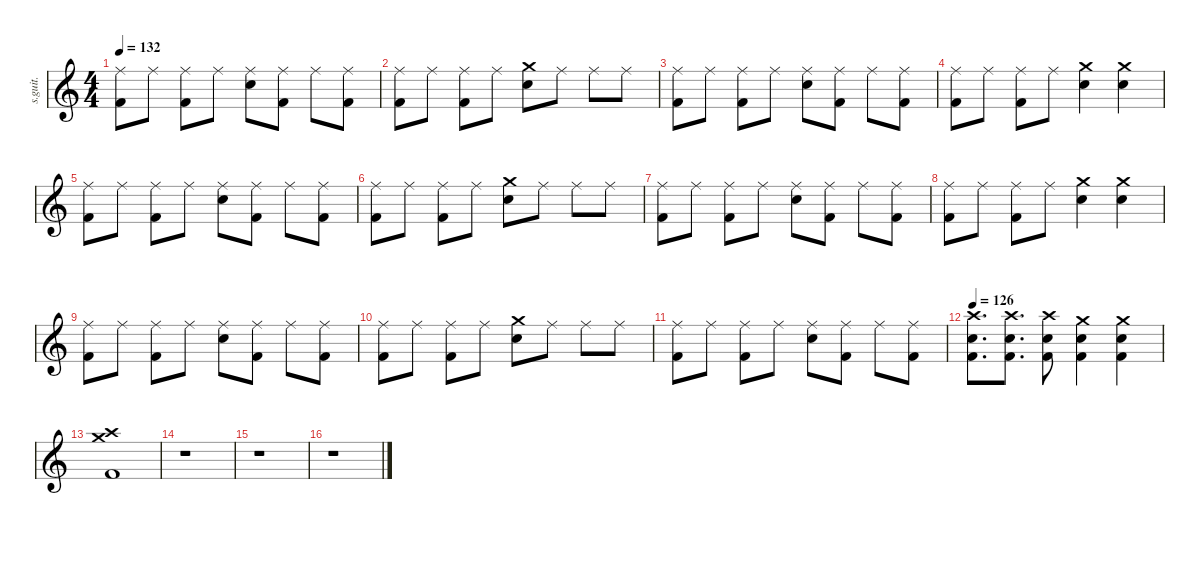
\defaultSystemsLayout 4
\hideDynamics
\bracketExtendMode nobrackets
\track ("John Dolmayan" "s.guit.") {instrument percussion}
\staff {score}
\articulation defaults
\ts (4 4)
\tempo 132
\clef g2
\ks c
("Ride (middle)" "Kick (hit) 2").8{lyrics (0 "") lyrics (1 "") lyrics (2 "") lyrics (3 "") lyrics (4 "") dy f} "Ride (middle)".8{lyrics (0 "") lyrics (1 "") lyrics (2 "") lyrics (3 "") lyrics (4 "")} ("Ride (middle)" "Kick (hit) 2").8{lyrics (0 "") lyrics (1 "") lyrics (2 "") lyrics (3 "") lyrics (4 "")} "Ride (middle)".8{lyrics (0 "") lyrics (1 "") lyrics (2 "") lyrics (3 "") lyrics (4 "")} ("Ride (middle)" "Snare (hit) 2").8{lyrics (0 "") lyrics (1 "") lyrics (2 "") lyrics (3 "") lyrics (4 "")} ("Ride (middle)" "Kick (hit) 2").8{lyrics (0 "") lyrics (1 "") lyrics (2 "") lyrics (3 "") lyrics (4 "")} "Ride (middle)".8{lyrics (0 "") lyrics (1 "") lyrics (2 "") lyrics (3 "") lyrics (4 "")} ("Ride (middle)" "Kick (hit) 2").8{lyrics (0 "") lyrics (1 "") lyrics (2 "") lyrics (3 "") lyrics (4 "")} |
("Ride (middle)" "Kick (hit) 2").8{lyrics (0 "") lyrics (1 "") lyrics (2 "") lyrics (3 "") lyrics (4 "")} "Ride (middle)".8{lyrics (0 "") lyrics (1 "") lyrics (2 "") lyrics (3 "") lyrics (4 "")} ("Ride (middle)" "Kick (hit) 2").8{lyrics (0 "") lyrics (1 "") lyrics (2 "") lyrics (3 "") lyrics (4 "")} "Ride (middle)".8{lyrics (0 "") lyrics (1 "") lyrics (2 "") lyrics (3 "") lyrics (4 "")} ("Crash medium (hit)" "Snare (hit) 2").8{lyrics (0 "") lyrics (1 "") lyrics (2 "") lyrics (3 "") lyrics (4 "")} "Ride (middle)".8{lyrics (0 "") lyrics (1 "") lyrics (2 "") lyrics (3 "") lyrics (4 "")} "Ride (middle)".8{lyrics (0 "") lyrics (1 "") lyrics (2 "") lyrics (3 "") lyrics (4 "")} "Ride (middle)".8{lyrics (0 "") lyrics (1 "") lyrics (2 "") lyrics (3 "") lyrics (4 "")} |
("Ride (middle)" "Kick (hit) 2").8{lyrics (0 "") lyrics (1 "") lyrics (2 "") lyrics (3 "") lyrics (4 "")} "Ride (middle)".8{lyrics (0 "") lyrics (1 "") lyrics (2 "") lyrics (3 "") lyrics (4 "")} ("Ride (middle)" "Kick (hit) 2").8{lyrics (0 "") lyrics (1 "") lyrics (2 "") lyrics (3 "") lyrics (4 "")} "Ride (middle)".8{lyrics (0 "") lyrics (1 "") lyrics (2 "") lyrics (3 "") lyrics (4 "")} ("Ride (middle)" "Snare (hit) 2").8{lyrics (0 "") lyrics (1 "") lyrics (2 "") lyrics (3 "") lyrics (4 "")} ("Ride (middle)" "Kick (hit) 2").8{lyrics (0 "") lyrics (1 "") lyrics (2 "") lyrics (3 "") lyrics (4 "")} "Ride (middle)".8{lyrics (0 "") lyrics (1 "") lyrics (2 "") lyrics (3 "") lyrics (4 "")} ("Ride (middle)" "Kick (hit) 2").8{lyrics (0 "") lyrics (1 "") lyrics (2 "") lyrics (3 "") lyrics (4 "")} |
("Ride (middle)" "Kick (hit) 2").8{lyrics (0 "") lyrics (1 "") lyrics (2 "") lyrics (3 "") lyrics (4 "")} "Ride (middle)".8{lyrics (0 "") lyrics (1 "") lyrics (2 "") lyrics (3 "") lyrics (4 "")} ("Ride (middle)" "Kick (hit) 2").8{lyrics (0 "") lyrics (1 "") lyrics (2 "") lyrics (3 "") lyrics (4 "")} "Ride (middle)".8{lyrics (0 "") lyrics (1 "") lyrics (2 "") lyrics (3 "") lyrics (4 "")} ("Crash medium (hit)" "Snare (hit) 2").4{lyrics (0 "") lyrics (1 "") lyrics (2 "") lyrics (3 "") lyrics (4 "")} ("Crash medium (hit)" "Snare (hit) 2").4{lyrics (0 "") lyrics (1 "") lyrics (2 "") lyrics (3 "") lyrics (4 "")} |
("Ride (middle)" "Kick (hit) 2").8{lyrics (0 "") lyrics (1 "") lyrics (2 "") lyrics (3 "") lyrics (4 "")} "Ride (middle)".8{lyrics (0 "") lyrics (1 "") lyrics (2 "") lyrics (3 "") lyrics (4 "")} ("Ride (middle)" "Kick (hit) 2").8{lyrics (0 "") lyrics (1 "") lyrics (2 "") lyrics (3 "") lyrics (4 "")} "Ride (middle)".8{lyrics (0 "") lyrics (1 "") lyrics (2 "") lyrics (3 "") lyrics (4 "") dy mf} ("Ride (middle)" "Snare (hit) 2").8{lyrics (0 "") lyrics (1 "") lyrics (2 "") lyrics (3 "") lyrics (4 "") dy f} ("Ride (middle)" "Kick (hit) 2").8{lyrics (0 "") lyrics (1 "") lyrics (2 "") lyrics (3 "") lyrics (4 "")} "Ride (middle)".8{lyrics (0 "") lyrics (1 "") lyrics (2 "") lyrics (3 "") lyrics (4 "")} ("Ride (middle)" "Kick (hit) 2").8{lyrics (0 "") lyrics (1 "") lyrics (2 "") lyrics (3 "") lyrics (4 "")} |
("Ride (middle)" "Kick (hit) 2").8{lyrics (0 "") lyrics (1 "") lyrics (2 "") lyrics (3 "") lyrics (4 "")} "Ride (middle)".8{lyrics (0 "") lyrics (1 "") lyrics (2 "") lyrics (3 "") lyrics (4 "")} ("Ride (middle)" "Kick (hit) 2").8{lyrics (0 "") lyrics (1 "") lyrics (2 "") lyrics (3 "") lyrics (4 "")} "Ride (middle)".8{lyrics (0 "") lyrics (1 "") lyrics (2 "") lyrics (3 "") lyrics (4 "")} ("Crash medium (hit)" "Snare (hit) 2").8{lyrics (0 "") lyrics (1 "") lyrics (2 "") lyrics (3 "") lyrics (4 "")} "Ride (middle)".8{lyrics (0 "") lyrics (1 "") lyrics (2 "") lyrics (3 "") lyrics (4 "")} "Ride (middle)".8{lyrics (0 "") lyrics (1 "") lyrics (2 "") lyrics (3 "") lyrics (4 "")} "Ride (middle)".8{lyrics (0 "") lyrics (1 "") lyrics (2 "") lyrics (3 "") lyrics (4 "")} |
("Ride (middle)" "Kick (hit) 2").8{lyrics (0 "") lyrics (1 "") lyrics (2 "") lyrics (3 "") lyrics (4 "")} "Ride (middle)".8{lyrics (0 "") lyrics (1 "") lyrics (2 "") lyrics (3 "") lyrics (4 "")} ("Ride (middle)" "Kick (hit) 2").8{lyrics (0 "") lyrics (1 "") lyrics (2 "") lyrics (3 "") lyrics (4 "")} "Ride (middle)".8{lyrics (0 "") lyrics (1 "") lyrics (2 "") lyrics (3 "") lyrics (4 "") dy mf} ("Ride (middle)" "Snare (hit) 2").8{lyrics (0 "") lyrics (1 "") lyrics (2 "") lyrics (3 "") lyrics (4 "") dy f} ("Ride (middle)" "Kick (hit) 2").8{lyrics (0 "") lyrics (1 "") lyrics (2 "") lyrics (3 "") lyrics (4 "")} "Ride (middle)".8{lyrics (0 "") lyrics (1 "") lyrics (2 "") lyrics (3 "") lyrics (4 "")} ("Ride (middle)" "Kick (hit) 2").8{lyrics (0 "") lyrics (1 "") lyrics (2 "") lyrics (3 "") lyrics (4 "")} |
("Ride (middle)" "Kick (hit) 2").8{lyrics (0 "") lyrics (1 "") lyrics (2 "") lyrics (3 "") lyrics (4 "")} "Ride (middle)".8{lyrics (0 "") lyrics (1 "") lyrics (2 "") lyrics (3 "") lyrics (4 "")} ("Ride (middle)" "Kick (hit) 2").8{lyrics (0 "") lyrics (1 "") lyrics (2 "") lyrics (3 "") lyrics (4 "")} "Ride (middle)".8{lyrics (0 "") lyrics (1 "") lyrics (2 "") lyrics (3 "") lyrics (4 "")} ("Crash medium (hit)" "Snare (hit) 2").4{lyrics (0 "") lyrics (1 "") lyrics (2 "") lyrics (3 "") lyrics (4 "")} ("Crash medium (hit)" "Snare (hit) 2").4{lyrics (0 "") lyrics (1 "") lyrics (2 "") lyrics (3 "") lyrics (4 "")} |
("Ride (middle)" "Kick (hit) 2").8{lyrics (0 "") lyrics (1 "") lyrics (2 "") lyrics (3 "") lyrics (4 "")} "Ride (middle)".8{lyrics (0 "") lyrics (1 "") lyrics (2 "") lyrics (3 "") lyrics (4 "")} ("Ride (middle)" "Kick (hit) 2").8{lyrics (0 "") lyrics (1 "") lyrics (2 "") lyrics (3 "") lyrics (4 "")} "Ride (middle)".8{lyrics (0 "") lyrics (1 "") lyrics (2 "") lyrics (3 "") lyrics (4 "")} ("Ride (middle)" "Snare (hit) 2").8{lyrics (0 "") lyrics (1 "") lyrics (2 "") lyrics (3 "") lyrics (4 "")} ("Ride (middle)" "Kick (hit) 2").8{lyrics (0 "") lyrics (1 "") lyrics (2 "") lyrics (3 "") lyrics (4 "")} "Ride (middle)".8{lyrics (0 "") lyrics (1 "") lyrics (2 "") lyrics (3 "") lyrics (4 "")} ("Ride (middle)" "Kick (hit) 2").8{lyrics (0 "") lyrics (1 "") lyrics (2 "") lyrics (3 "") lyrics (4 "")} |
("Ride (middle)" "Kick (hit) 2").8{lyrics (0 "") lyrics (1 "") lyrics (2 "") lyrics (3 "") lyrics (4 "")} "Ride (middle)".8{lyrics (0 "") lyrics (1 "") lyrics (2 "") lyrics (3 "") lyrics (4 "")} ("Ride (middle)" "Kick (hit) 2").8{lyrics (0 "") lyrics (1 "") lyrics (2 "") lyrics (3 "") lyrics (4 "")} "Ride (middle)".8{lyrics (0 "") lyrics (1 "") lyrics (2 "") lyrics (3 "") lyrics (4 "")} ("Crash medium (hit)" "Snare (hit) 2").8{lyrics (0 "") lyrics (1 "") lyrics (2 "") lyrics (3 "") lyrics (4 "")} "Ride (middle)".8{lyrics (0 "") lyrics (1 "") lyrics (2 "") lyrics (3 "") lyrics (4 "")} "Ride (middle)".8{lyrics (0 "") lyrics (1 "") lyrics (2 "") lyrics (3 "") lyrics (4 "")} "Ride (middle)".8{lyrics (0 "") lyrics (1 "") lyrics (2 "") lyrics (3 "") lyrics (4 "")} |
("Ride (middle)" "Kick (hit) 2").8{lyrics (0 "") lyrics (1 "") lyrics (2 "") lyrics (3 "") lyrics (4 "")} "Ride (middle)".8{lyrics (0 "") lyrics (1 "") lyrics (2 "") lyrics (3 "") lyrics (4 "")} ("Ride (middle)" "Kick (hit) 2").8{lyrics (0 "") lyrics (1 "") lyrics (2 "") lyrics (3 "") lyrics (4 "")} "Ride (middle)".8{lyrics (0 "") lyrics (1 "") lyrics (2 "") lyrics (3 "") lyrics (4 "")} ("Ride (middle)" "Snare (hit) 2").8{lyrics (0 "") lyrics (1 "") lyrics (2 "") lyrics (3 "") lyrics (4 "")} ("Ride (middle)" "Kick (hit) 2").8{lyrics (0 "") lyrics (1 "") lyrics (2 "") lyrics (3 "") lyrics (4 "")} "Ride (middle)".8{lyrics (0 "") lyrics (1 "") lyrics (2 "") lyrics (3 "") lyrics (4 "")} ("Ride (middle)" "Kick (hit) 2").8{lyrics (0 "") lyrics (1 "") lyrics (2 "") lyrics (3 "") lyrics (4 "")} |
\tempo 126
("Crash high (hit)" "Snare (hit) 2" "Kick (hit) 2").8{d lyrics (0 "") lyrics (1 "") lyrics (2 "") lyrics (3 "") lyrics (4 "")} ("Crash high (hit)" "Snare (hit) 2" "Kick (hit) 2").8{d lyrics (0 "") lyrics (1 "") lyrics (2 "") lyrics (3 "") lyrics (4 "")} ("Crash high (hit)" "Snare (hit) 2" "Kick (hit) 2").8{lyrics (0 "") lyrics (1 "") lyrics (2 "") lyrics (3 "") lyrics (4 "")} ("Crash medium (hit)" "Snare (hit) 2" "Kick (hit) 2").4{lyrics (0 "") lyrics (1 "") lyrics (2 "") lyrics (3 "") lyrics (4 "")} ("Crash medium (hit)" "Snare (hit) 2" "Kick (hit) 2").4{lyrics (0 "") lyrics (1 "") lyrics (2 "") lyrics (3 "") lyrics (4 "")} |
("Crash high (hit)" "Crash medium (hit)" "Kick (hit) 2").1{lyrics (0 "") lyrics (1 "") lyrics (2 "") lyrics (3 "") lyrics (4 "")} |
r.1 |
r.1 |
r.1
